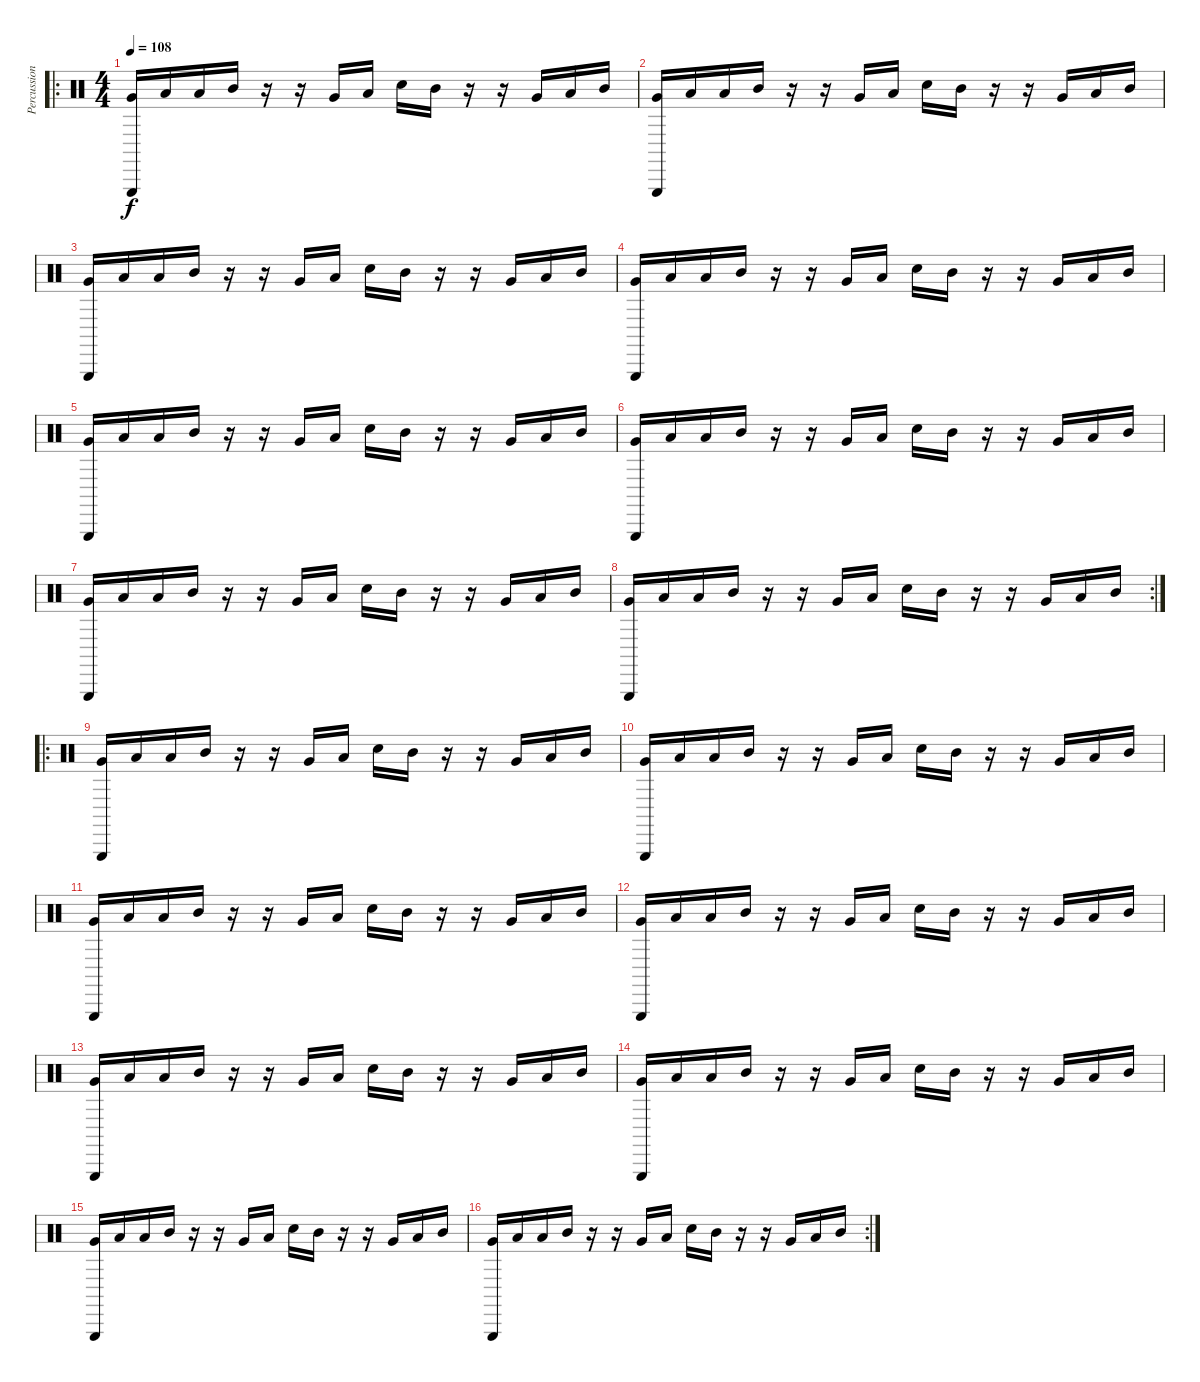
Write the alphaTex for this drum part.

\track ("Percussions" "Percussion") {instrument percussion}
\staff {score}
\articulation defaults
\ro
\ts (4 4)
\tempo 108
\clef neutral
\ks c
("Triangle (hit)" "Very Low Tom (hit)").16{dy f} "Low Tom (hit)".16 "Low Floor Tom (hit)".16 "Mid Tom (hit)".16 r.16 r.16 "Very Low Tom (hit)".16 "Low Tom (hit)".16 "Snare (hit)".16 "Mid Tom (hit)".16 r.16 r.16 "Very Low Tom (hit)".16 "Low Tom (hit)".16 "Mid Tom (hit)".16 |
("Triangle (hit)" "Very Low Tom (hit)").16 "Low Tom (hit)".16 "Low Floor Tom (hit)".16 "Mid Tom (hit)".16 r.16 r.16 "Very Low Tom (hit)".16 "Low Tom (hit)".16 "Snare (hit)".16 "Mid Tom (hit)".16 r.16 r.16 "Very Low Tom (hit)".16 "Low Tom (hit)".16 "Mid Tom (hit)".16 |
("Triangle (hit)" "Very Low Tom (hit)").16 "Low Tom (hit)".16 "Low Floor Tom (hit)".16 "Mid Tom (hit)".16 r.16 r.16 "Very Low Tom (hit)".16 "Low Tom (hit)".16 "Snare (hit)".16 "Mid Tom (hit)".16 r.16 r.16 "Very Low Tom (hit)".16 "Low Tom (hit)".16 "Mid Tom (hit)".16 |
("Triangle (hit)" "Very Low Tom (hit)").16 "Low Tom (hit)".16 "Low Floor Tom (hit)".16 "Mid Tom (hit)".16 r.16 r.16 "Very Low Tom (hit)".16 "Low Tom (hit)".16 "Snare (hit)".16 "Mid Tom (hit)".16 r.16 r.16 "Very Low Tom (hit)".16 "Low Tom (hit)".16 "Mid Tom (hit)".16 |
("Triangle (hit)" "Very Low Tom (hit)").16 "Low Tom (hit)".16 "Low Floor Tom (hit)".16 "Mid Tom (hit)".16 r.16 r.16 "Very Low Tom (hit)".16 "Low Tom (hit)".16 "Snare (hit)".16 "Mid Tom (hit)".16 r.16 r.16 "Very Low Tom (hit)".16 "Low Tom (hit)".16 "Mid Tom (hit)".16 |
("Triangle (hit)" "Very Low Tom (hit)").16 "Low Tom (hit)".16 "Low Floor Tom (hit)".16 "Mid Tom (hit)".16 r.16 r.16 "Very Low Tom (hit)".16 "Low Tom (hit)".16 "Snare (hit)".16 "Mid Tom (hit)".16 r.16 r.16 "Very Low Tom (hit)".16 "Low Tom (hit)".16 "Mid Tom (hit)".16 |
("Triangle (hit)" "Very Low Tom (hit)").16 "Low Tom (hit)".16 "Low Floor Tom (hit)".16 "Mid Tom (hit)".16 r.16 r.16 "Very Low Tom (hit)".16 "Low Tom (hit)".16 "Snare (hit)".16 "Mid Tom (hit)".16 r.16 r.16 "Very Low Tom (hit)".16 "Low Tom (hit)".16 "Mid Tom (hit)".16 |
\rc 2
("Triangle (hit)" "Very Low Tom (hit)").16 "Low Tom (hit)".16 "Low Floor Tom (hit)".16 "Mid Tom (hit)".16 r.16 r.16 "Very Low Tom (hit)".16 "Low Tom (hit)".16 "Snare (hit)".16 "Mid Tom (hit)".16 r.16 r.16 "Very Low Tom (hit)".16 "Low Tom (hit)".16 "Mid Tom (hit)".16 |
\ro
("Triangle (hit)" "Very Low Tom (hit)").16 "Low Tom (hit)".16 "Low Floor Tom (hit)".16 "Mid Tom (hit)".16 r.16 r.16 "Very Low Tom (hit)".16 "Low Tom (hit)".16 "Snare (hit)".16 "Mid Tom (hit)".16 r.16 r.16 "Very Low Tom (hit)".16 "Low Tom (hit)".16 "Mid Tom (hit)".16 |
("Triangle (hit)" "Very Low Tom (hit)").16 "Low Tom (hit)".16 "Low Floor Tom (hit)".16 "Mid Tom (hit)".16 r.16 r.16 "Very Low Tom (hit)".16 "Low Tom (hit)".16 "Snare (hit)".16 "Mid Tom (hit)".16 r.16 r.16 "Very Low Tom (hit)".16 "Low Tom (hit)".16 "Mid Tom (hit)".16 |
("Triangle (hit)" "Very Low Tom (hit)").16 "Low Tom (hit)".16 "Low Floor Tom (hit)".16 "Mid Tom (hit)".16 r.16 r.16 "Very Low Tom (hit)".16 "Low Tom (hit)".16 "Snare (hit)".16 "Mid Tom (hit)".16 r.16 r.16 "Very Low Tom (hit)".16 "Low Tom (hit)".16 "Mid Tom (hit)".16 |
("Triangle (hit)" "Very Low Tom (hit)").16 "Low Tom (hit)".16 "Low Floor Tom (hit)".16 "Mid Tom (hit)".16 r.16 r.16 "Very Low Tom (hit)".16 "Low Tom (hit)".16 "Snare (hit)".16 "Mid Tom (hit)".16 r.16 r.16 "Very Low Tom (hit)".16 "Low Tom (hit)".16 "Mid Tom (hit)".16 |
("Triangle (hit)" "Very Low Tom (hit)").16 "Low Tom (hit)".16 "Low Floor Tom (hit)".16 "Mid Tom (hit)".16 r.16 r.16 "Very Low Tom (hit)".16 "Low Tom (hit)".16 "Snare (hit)".16 "Mid Tom (hit)".16 r.16 r.16 "Very Low Tom (hit)".16 "Low Tom (hit)".16 "Mid Tom (hit)".16 |
("Triangle (hit)" "Very Low Tom (hit)").16 "Low Tom (hit)".16 "Low Floor Tom (hit)".16 "Mid Tom (hit)".16 r.16 r.16 "Very Low Tom (hit)".16 "Low Tom (hit)".16 "Snare (hit)".16 "Mid Tom (hit)".16 r.16 r.16 "Very Low Tom (hit)".16 "Low Tom (hit)".16 "Mid Tom (hit)".16 |
("Triangle (hit)" "Very Low Tom (hit)").16 "Low Tom (hit)".16 "Low Floor Tom (hit)".16 "Mid Tom (hit)".16 r.16 r.16 "Very Low Tom (hit)".16 "Low Tom (hit)".16 "Snare (hit)".16 "Mid Tom (hit)".16 r.16 r.16 "Very Low Tom (hit)".16 "Low Tom (hit)".16 "Mid Tom (hit)".16 |
\rc 2
("Triangle (hit)" "Very Low Tom (hit)").16 "Low Tom (hit)".16 "Low Floor Tom (hit)".16 "Mid Tom (hit)".16 r.16 r.16 "Very Low Tom (hit)".16 "Low Tom (hit)".16 "Snare (hit)".16 "Mid Tom (hit)".16 r.16 r.16 "Very Low Tom (hit)".16 "Low Tom (hit)".16 "Mid Tom (hit)".16
